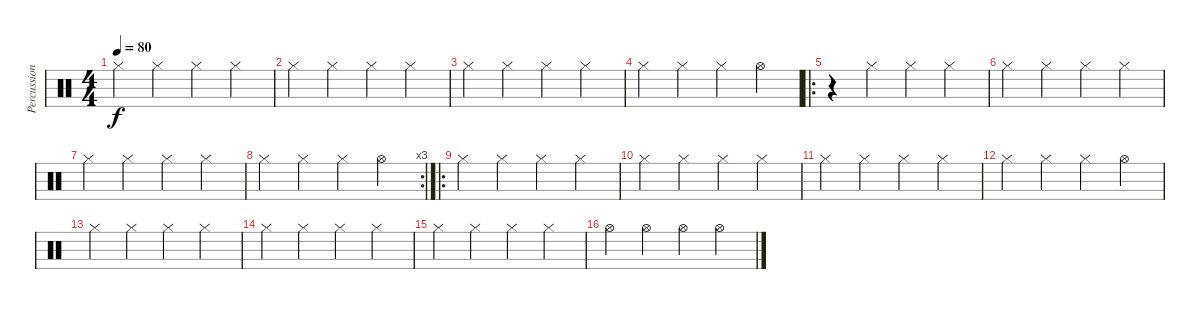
\track ("Percussions" "Percussion") {instrument percussion}
\staff {score}
\articulation defaults
\ts (4 4)
\tempo 80
\clef neutral
\ks c "Hi-Hat (closed)".4{dy f} "Hi-Hat (closed)".4 "Hi-Hat (closed)".4 "Hi-Hat (closed)".4
|
"Hi-Hat (closed)".4 "Hi-Hat (closed)".4 "Hi-Hat (closed)".4 "Hi-Hat (closed)".4 |
"Hi-Hat (closed)".4 "Hi-Hat (closed)".4 "Hi-Hat (closed)".4 "Hi-Hat (closed)".4 |
"Hi-Hat (closed)".4 "Hi-Hat (closed)".4 "Hi-Hat (closed)".4 "Hi-Hat (open)".4 |
\ro
r.4 "Hi-Hat (closed)".4 "Hi-Hat (closed)".4 "Hi-Hat (closed)".4 |
"Hi-Hat (closed)".4 "Hi-Hat (closed)".4 "Hi-Hat (closed)".4 "Hi-Hat (closed)".4 |
"Hi-Hat (closed)".4 "Hi-Hat (closed)".4 "Hi-Hat (closed)".4 "Hi-Hat (closed)".4 |
\rc 3 "Hi-Hat (closed)".4 "Hi-Hat (closed)".4 "Hi-Hat (closed)".4 "Hi-Hat (open)".4
|
\ro "Hi-Hat (closed)".4 "Hi-Hat (closed)".4 "Hi-Hat (closed)".4 "Hi-Hat (closed)".4
|
"Hi-Hat (closed)".4 "Hi-Hat (closed)".4 "Hi-Hat (closed)".4 "Hi-Hat (closed)".4 |
"Hi-Hat (closed)".4 "Hi-Hat (closed)".4 "Hi-Hat (closed)".4 "Hi-Hat (closed)".4 |
"Hi-Hat (closed)".4 "Hi-Hat (closed)".4 "Hi-Hat (closed)".4 "Hi-Hat (open)".4 |
"Hi-Hat (closed)".4 "Hi-Hat (closed)".4 "Hi-Hat (closed)".4 "Hi-Hat (closed)".4 |
"Hi-Hat (closed)".4 "Hi-Hat (closed)".4 "Hi-Hat (closed)".4 "Hi-Hat (closed)".4 |
"Hi-Hat (closed)".4 "Hi-Hat (closed)".4 "Hi-Hat (closed)".4 "Hi-Hat (closed)".4 |
"Hi-Hat (open)".4 "Hi-Hat (open)".4 "Hi-Hat (open)".4 "Hi-Hat (open)".4
